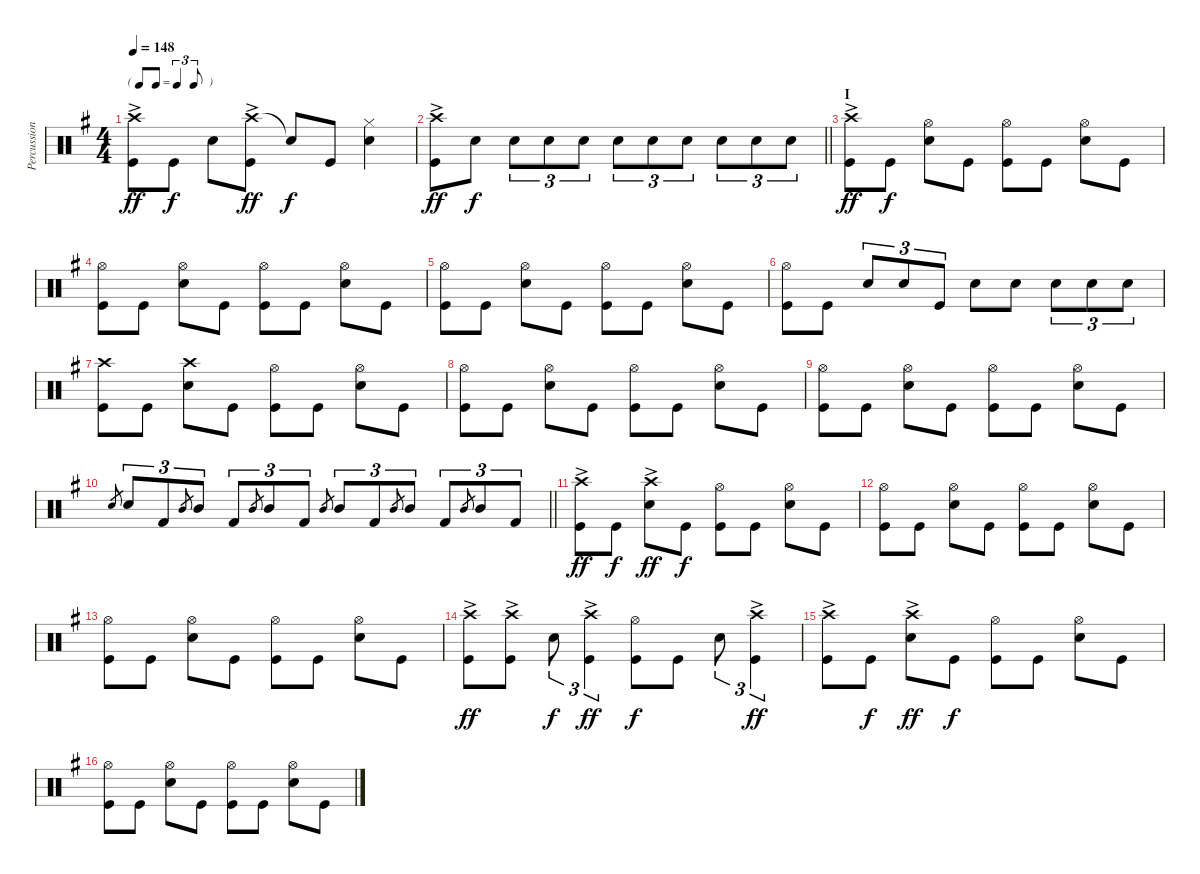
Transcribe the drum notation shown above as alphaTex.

\track ("Percussion" "Percussion") {instrument percussion}
\staff {score}
\articulation defaults
\ts (4 4)
\tf triplet8th
\tempo 148
\clef neutral
\ks g
("Crash high (hit)"{ac} "Kick (hit)").8{dy ff} "Kick (hit)".8{dy f} "Snare (hit) 2".8 ("Crash high (hit)"{ac} "Kick (hit)").8{dy ff} "Snare (hit)"{t}.8{dy f} "Kick (hit)".8 ("Hi-Hat (closed)" "Snare (hit) 2").4 |
\barLineRight lightlight
("Crash high (hit)"{ac} "Kick (hit)").8{dy ff} "Snare (hit) 2".8{dy f} "Snare (hit) 2".8{tu (3 2)} "Snare (hit) 2".8{tu (3 2)} "Snare (hit) 2".8{tu (3 2)} "Snare (hit) 2".8{tu (3 2)} "Snare (hit) 2".8{tu (3 2)} "Snare (hit) 2".8{tu (3 2)} "Snare (hit) 2".8{tu (3 2)} "Snare (hit) 2".8{tu (3 2)} "Snare (hit) 2".8{tu (3 2)} |
\section ("" "I")
("Crash high (hit)"{ac} "Kick (hit)").8{dy ff} "Kick (hit)".8{dy f} ("Hi-Hat (open)" "Snare (hit) 2").8 "Kick (hit)".8 ("Hi-Hat (open)" "Kick (hit)").8 "Kick (hit)".8 ("Hi-Hat (open)" "Snare (hit) 2").8 "Kick (hit)".8 |
("Hi-Hat (open)" "Kick (hit)").8 "Kick (hit)".8 ("Hi-Hat (open)" "Snare (hit) 2").8 "Kick (hit)".8 ("Hi-Hat (open)" "Kick (hit)").8 "Kick (hit)".8 ("Hi-Hat (open)" "Snare (hit) 2").8 "Kick (hit)".8 |
("Hi-Hat (open)" "Kick (hit)").8 "Kick (hit)".8 ("Hi-Hat (open)" "Snare (hit) 2").8 "Kick (hit)".8 ("Hi-Hat (open)" "Kick (hit)").8 "Kick (hit)".8 ("Hi-Hat (open)" "Snare (hit) 2").8 "Kick (hit)".8 |
("Hi-Hat (open)" "Kick (hit)").8 "Kick (hit)".8 "Snare (hit) 2".8{tu (3 2)} "Snare (hit) 2".8{tu (3 2)} "Kick (hit)".8{tu (3 2)} "Snare (hit) 2".8 "Snare (hit) 2".8 "Snare (hit) 2".8{tu (3 2)} "Snare (hit) 2".8{tu (3 2)} "Snare (hit) 2".8{tu (3 2)} |
("Crash high (hit)" "Kick (hit)").8 "Kick (hit)".8 ("Crash high (hit)" "Snare (hit) 2").8 "Kick (hit)".8 ("Hi-Hat (open)" "Kick (hit)").8 "Kick (hit)".8 ("Hi-Hat (open)" "Snare (hit) 2").8 "Kick (hit)".8 |
("Hi-Hat (open)" "Kick (hit)").8 "Kick (hit)".8 ("Hi-Hat (open)" "Snare (hit) 2").8 "Kick (hit)".8 ("Hi-Hat (open)" "Kick (hit)").8 "Kick (hit)".8 ("Hi-Hat (open)" "Snare (hit) 2").8 "Kick (hit)".8 |
("Hi-Hat (open)" "Kick (hit)").8 "Kick (hit)".8 ("Hi-Hat (open)" "Snare (hit) 2").8 "Kick (hit)".8 ("Hi-Hat (open)" "Kick (hit)").8 "Kick (hit)".8 ("Hi-Hat (open)" "Snare (hit) 2").8 "Kick (hit)".8 |
\barLineRight lightlight "Snare (hit) 2".8{gr} "Snare (hit) 2".8{tu (3 2)} "Kick (hit) 2".8{tu (3 2)} "Mid Tom (hit)".8{gr} "Mid Tom (hit)".8{tu (3 2)} "Kick (hit) 2".8{tu (3 2)} "Mid Tom (hit)".8{gr} "Mid Tom (hit)".8{tu (3 2)} "Kick (hit) 2".8{tu (3 2)} "Mid Tom (hit)".8{gr} "Mid Tom (hit)".8{tu (3 2)} "Kick (hit) 2".8{tu (3 2)} "Mid Tom (hit)".8{gr} "Mid Tom (hit)".8{tu (3 2)} "Kick (hit) 2".8{tu (3 2)} "Mid Tom (hit)".8{gr} "Mid Tom (hit)".8{tu (3 2)} "Kick (hit) 2".8{tu (3 2)}
|
("Crash high (hit)"{ac} "Kick (hit)").8{dy ff} "Kick (hit)".8{dy f} ("Crash high (hit)"{ac} "Snare (hit) 2").8{dy ff} "Kick (hit)".8{dy f} ("Hi-Hat (open)" "Kick (hit)").8 "Kick (hit)".8 ("Hi-Hat (open)" "Snare (hit) 2").8 "Kick (hit)".8 |
("Hi-Hat (open)" "Kick (hit)").8 "Kick (hit)".8 ("Hi-Hat (open)" "Snare (hit) 2").8 "Kick (hit)".8 ("Hi-Hat (open)" "Kick (hit)").8 "Kick (hit)".8 ("Hi-Hat (open)" "Snare (hit) 2").8 "Kick (hit)".8 |
("Hi-Hat (open)" "Kick (hit)").8 "Kick (hit)".8 ("Hi-Hat (open)" "Snare (hit) 2").8 "Kick (hit)".8 ("Hi-Hat (open)" "Kick (hit)").8 "Kick (hit)".8 ("Hi-Hat (open)" "Snare (hit) 2").8 "Kick (hit)".8 |
("Crash high (hit)"{ac} "Kick (hit)").8{dy ff} ("Crash high (hit)"{ac} "Kick (hit)").8 "Snare (hit) 2".8{tu (3 2) dy f} ("Crash high (hit)"{ac} "Kick (hit)").4{tu (3 2) dy ff} ("Hi-Hat (open)" "Kick (hit)").8{dy f} "Kick (hit)".8 "Snare (hit) 2".8{tu (3 2)} ("Crash high (hit)"{ac} "Kick (hit)").4{tu (3 2) dy ff} |
("Crash high (hit)"{ac} "Kick (hit)").8 "Kick (hit)".8{dy f} ("Crash high (hit)"{ac} "Snare (hit) 2").8{dy ff} "Kick (hit)".8{dy f} ("Hi-Hat (open)" "Kick (hit)").8 "Kick (hit)".8 ("Hi-Hat (open)" "Snare (hit) 2").8 "Kick (hit)".8 |
("Hi-Hat (open)" "Kick (hit)").8 "Kick (hit)".8 ("Hi-Hat (open)" "Snare (hit) 2").8 "Kick (hit)".8 ("Hi-Hat (open)" "Kick (hit)").8 "Kick (hit)".8 ("Hi-Hat (open)" "Snare (hit) 2").8 "Kick (hit)".8
